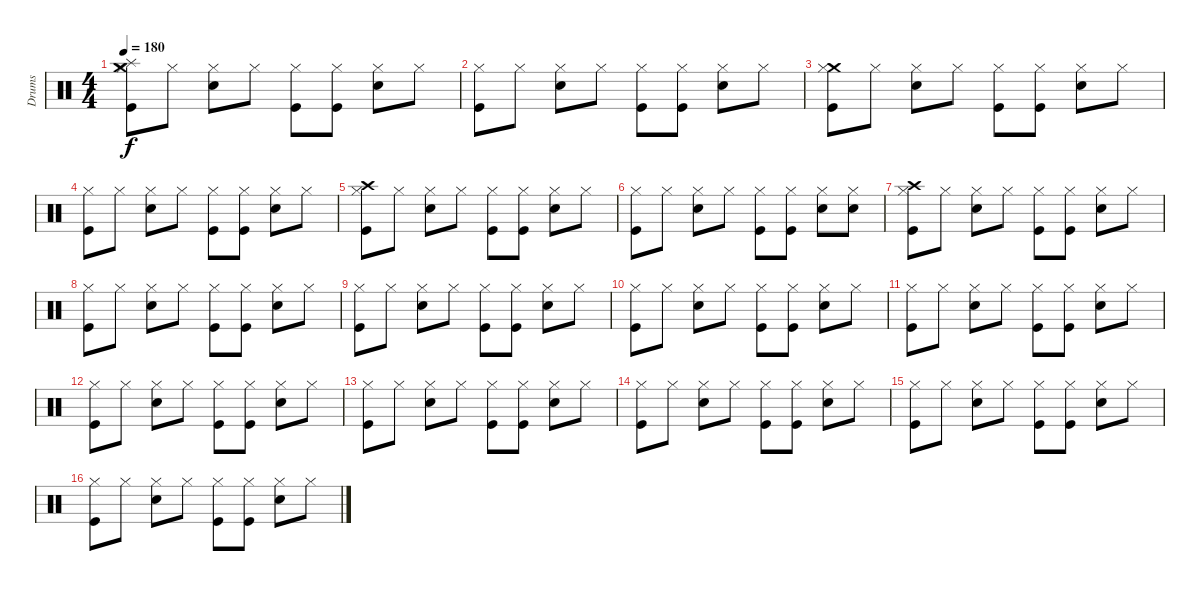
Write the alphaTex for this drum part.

\track ("Drums" "Drums") {instrument percussion}
\staff {score}
\articulation defaults
\ts (4 4)
\tempo 180
\clef neutral
\ks c
("Crash medium (hit)" "Splash (hit)" "Hi-Hat (closed)" "Kick (hit)").8{dy f} "Hi-Hat (closed)".8 ("Hi-Hat (closed)" "Electric Snare (hit)").8 "Hi-Hat (closed)".8 ("Kick (hit)" "Hi-Hat (closed)").8 ("Hi-Hat (closed)" "Kick (hit)").8 ("Hi-Hat (closed)" "Electric Snare (hit)").8 "Hi-Hat (closed)".8 |
("Hi-Hat (closed)" "Kick (hit)").8 "Hi-Hat (closed)".8 ("Hi-Hat (closed)" "Electric Snare (hit)").8 "Hi-Hat (closed)".8 ("Kick (hit)" "Hi-Hat (closed)").8 ("Hi-Hat (closed)" "Kick (hit)").8 ("Hi-Hat (closed)" "Electric Snare (hit)").8 "Hi-Hat (closed)".8 |
("Crash medium (hit)" "Hi-Hat (closed)" "Kick (hit)").8 "Hi-Hat (closed)".8 ("Hi-Hat (closed)" "Electric Snare (hit)").8 "Hi-Hat (closed)".8 ("Kick (hit)" "Hi-Hat (closed)").8 ("Hi-Hat (closed)" "Kick (hit)").8 ("Hi-Hat (closed)" "Electric Snare (hit)").8 "Hi-Hat (closed)".8 |
("Hi-Hat (closed)" "Kick (hit)").8 "Hi-Hat (closed)".8 ("Hi-Hat (closed)" "Electric Snare (hit)").8 "Hi-Hat (closed)".8 ("Kick (hit)" "Hi-Hat (closed)").8 ("Hi-Hat (closed)" "Kick (hit)").8 ("Hi-Hat (closed)" "Electric Snare (hit)").8 "Hi-Hat (closed)".8 |
("Crash high (hit)" "Hi-Hat (closed)" "Kick (hit)").8 "Hi-Hat (closed)".8 ("Hi-Hat (closed)" "Electric Snare (hit)").8 "Hi-Hat (closed)".8 ("Kick (hit)" "Hi-Hat (closed)").8 ("Hi-Hat (closed)" "Kick (hit)").8 ("Hi-Hat (closed)" "Electric Snare (hit)").8 "Hi-Hat (closed)".8 |
("Hi-Hat (closed)" "Kick (hit)").8 "Hi-Hat (closed)".8 ("Hi-Hat (closed)" "Electric Snare (hit)").8 "Hi-Hat (closed)".8 ("Kick (hit)" "Hi-Hat (closed)").8 ("Hi-Hat (closed)" "Kick (hit)").8 ("Hi-Hat (closed)" "Electric Snare (hit)").8 ("Electric Snare (hit)" "Hi-Hat (closed)").8 |
("Crash high (hit)" "Hi-Hat (closed)" "Kick (hit)").8 "Hi-Hat (closed)".8 ("Hi-Hat (closed)" "Electric Snare (hit)").8 "Hi-Hat (closed)".8 ("Kick (hit)" "Hi-Hat (closed)").8 ("Hi-Hat (closed)" "Kick (hit)").8 ("Hi-Hat (closed)" "Electric Snare (hit)").8 "Hi-Hat (closed)".8 |
("Hi-Hat (closed)" "Kick (hit)").8 "Hi-Hat (closed)".8 ("Hi-Hat (closed)" "Electric Snare (hit)").8 "Hi-Hat (closed)".8 ("Kick (hit)" "Hi-Hat (closed)").8 ("Hi-Hat (closed)" "Kick (hit)").8 ("Hi-Hat (closed)" "Electric Snare (hit)").8 "Hi-Hat (closed)".8 |
("Hi-Hat (closed)" "Kick (hit)").8 "Hi-Hat (closed)".8 ("Hi-Hat (closed)" "Electric Snare (hit)").8 "Hi-Hat (closed)".8 ("Kick (hit)" "Hi-Hat (closed)").8 ("Hi-Hat (closed)" "Kick (hit)").8 ("Hi-Hat (closed)" "Electric Snare (hit)").8 "Hi-Hat (closed)".8 |
("Hi-Hat (closed)" "Kick (hit)").8 "Hi-Hat (closed)".8 ("Hi-Hat (closed)" "Electric Snare (hit)").8 "Hi-Hat (closed)".8 ("Kick (hit)" "Hi-Hat (closed)").8 ("Hi-Hat (closed)" "Kick (hit)").8 ("Hi-Hat (closed)" "Electric Snare (hit)").8 "Hi-Hat (closed)".8 |
("Hi-Hat (closed)" "Kick (hit)").8 "Hi-Hat (closed)".8 ("Hi-Hat (closed)" "Electric Snare (hit)").8 "Hi-Hat (closed)".8 ("Kick (hit)" "Hi-Hat (closed)").8 ("Hi-Hat (closed)" "Kick (hit)").8 ("Hi-Hat (closed)" "Electric Snare (hit)").8 "Hi-Hat (closed)".8 |
("Hi-Hat (closed)" "Kick (hit)").8 "Hi-Hat (closed)".8 ("Hi-Hat (closed)" "Electric Snare (hit)").8 "Hi-Hat (closed)".8 ("Kick (hit)" "Hi-Hat (closed)").8 ("Hi-Hat (closed)" "Kick (hit)").8 ("Hi-Hat (closed)" "Electric Snare (hit)").8 "Hi-Hat (closed)".8 |
("Hi-Hat (closed)" "Kick (hit)").8 "Hi-Hat (closed)".8 ("Hi-Hat (closed)" "Electric Snare (hit)").8 "Hi-Hat (closed)".8 ("Kick (hit)" "Hi-Hat (closed)").8 ("Hi-Hat (closed)" "Kick (hit)").8 ("Hi-Hat (closed)" "Electric Snare (hit)").8 "Hi-Hat (closed)".8 |
("Hi-Hat (closed)" "Kick (hit)").8 "Hi-Hat (closed)".8 ("Hi-Hat (closed)" "Electric Snare (hit)").8 "Hi-Hat (closed)".8 ("Kick (hit)" "Hi-Hat (closed)").8 ("Hi-Hat (closed)" "Kick (hit)").8 ("Hi-Hat (closed)" "Electric Snare (hit)").8 "Hi-Hat (closed)".8 |
("Hi-Hat (closed)" "Kick (hit)").8 "Hi-Hat (closed)".8 ("Hi-Hat (closed)" "Electric Snare (hit)").8 "Hi-Hat (closed)".8 ("Kick (hit)" "Hi-Hat (closed)").8 ("Hi-Hat (closed)" "Kick (hit)").8 ("Hi-Hat (closed)" "Electric Snare (hit)").8 "Hi-Hat (closed)".8 |
("Hi-Hat (closed)" "Kick (hit)").8 "Hi-Hat (closed)".8 ("Hi-Hat (closed)" "Electric Snare (hit)").8 "Hi-Hat (closed)".8 ("Kick (hit)" "Hi-Hat (closed)").8 ("Hi-Hat (closed)" "Kick (hit)").8 ("Hi-Hat (closed)" "Electric Snare (hit)").8 "Hi-Hat (closed)".8
